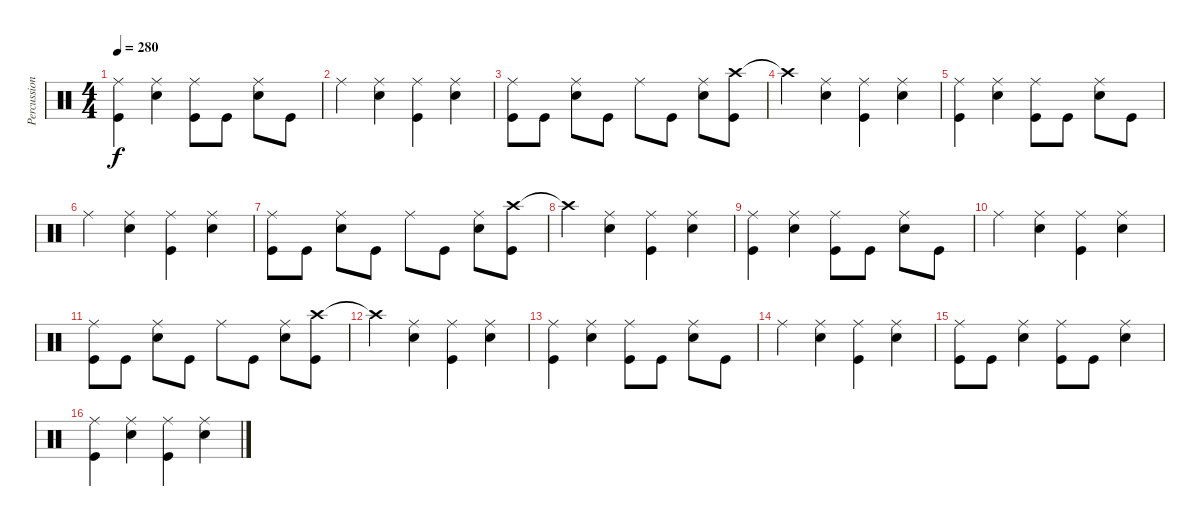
\track ("Percussion" "Percussion") {instrument percussion}
\staff {score}
\articulation defaults
\ts (4 4)
\tempo 280
\clef neutral
\ks c
("Kick (hit)" "Ride (middle)").4{dy f} ("Snare (hit) 2" "Ride (middle)").4 ("Kick (hit)" "Ride (middle)").8 "Kick (hit)".8 ("Snare (hit) 2" "Ride (middle)").8 "Kick (hit)".8 |
"Ride (middle)".4 ("Snare (hit) 2" "Ride (middle)").4 ("Kick (hit)" "Ride (middle)").4 ("Snare (hit) 2" "Ride (middle)").4 |
("Kick (hit)" "Ride (middle)").8 "Kick (hit)".8 ("Snare (hit) 2" "Ride (middle)").8 "Kick (hit)".8 "Ride (middle)".8 "Kick (hit)".8 ("Snare (hit) 2" "Ride (middle)").8 ("Crash high (hit)" "Kick (hit)").8 |
"Crash high (hit)"{t}.4 ("Snare (hit) 2" "Ride (middle)").4 ("Kick (hit)" "Ride (middle)").4 ("Ride (middle)" "Snare (hit) 2").4 |
("Kick (hit)" "Ride (middle)").4 ("Snare (hit) 2" "Ride (middle)").4 ("Kick (hit)" "Ride (middle)").8 "Kick (hit)".8 ("Snare (hit) 2" "Ride (middle)").8 "Kick (hit)".8 |
"Ride (middle)".4 ("Snare (hit) 2" "Ride (middle)").4 ("Kick (hit)" "Ride (middle)").4 ("Snare (hit) 2" "Ride (middle)").4 |
("Kick (hit)" "Ride (middle)").8 "Kick (hit)".8 ("Snare (hit) 2" "Ride (middle)").8 "Kick (hit)".8 "Ride (middle)".8 "Kick (hit)".8 ("Snare (hit) 2" "Ride (middle)").8 ("Crash high (hit)" "Kick (hit)").8 |
"Crash high (hit)"{t}.4 ("Snare (hit) 2" "Ride (middle)").4 ("Kick (hit)" "Ride (middle)").4 ("Ride (middle)" "Snare (hit) 2").4 |
("Kick (hit)" "Ride (middle)").4 ("Snare (hit) 2" "Ride (middle)").4 ("Kick (hit)" "Ride (middle)").8 "Kick (hit)".8 ("Snare (hit) 2" "Ride (middle)").8 "Kick (hit)".8 |
"Ride (middle)".4 ("Snare (hit) 2" "Ride (middle)").4 ("Kick (hit)" "Ride (middle)").4 ("Snare (hit) 2" "Ride (middle)").4 |
("Kick (hit)" "Ride (middle)").8 "Kick (hit)".8 ("Snare (hit) 2" "Ride (middle)").8 "Kick (hit)".8 "Ride (middle)".8 "Kick (hit)".8 ("Snare (hit) 2" "Ride (middle)").8 ("Crash high (hit)" "Kick (hit)").8 |
"Crash high (hit)"{t}.4 ("Snare (hit) 2" "Ride (middle)").4 ("Kick (hit)" "Ride (middle)").4 ("Ride (middle)" "Snare (hit) 2").4 |
("Kick (hit)" "Ride (middle)").4 ("Snare (hit) 2" "Ride (middle)").4 ("Kick (hit)" "Ride (middle)").8 "Kick (hit)".8 ("Snare (hit) 2" "Ride (middle)").8 "Kick (hit)".8 |
"Ride (middle)".4 ("Snare (hit) 2" "Ride (middle)").4 ("Kick (hit)" "Ride (middle)").4 ("Snare (hit) 2" "Ride (middle)").4 |
("Kick (hit)" "Ride (middle)").8 "Kick (hit)".8 ("Snare (hit) 2" "Ride (middle)").4 ("Kick (hit)" "Ride (middle)").8 "Kick (hit)".8 ("Snare (hit) 2" "Ride (middle)").4 |
("Kick (hit)" "Ride (middle)").4 ("Ride (middle)" "Snare (hit) 2").4 ("Kick (hit)" "Ride (middle)").4 ("Ride (middle)" "Snare (hit) 2").4
